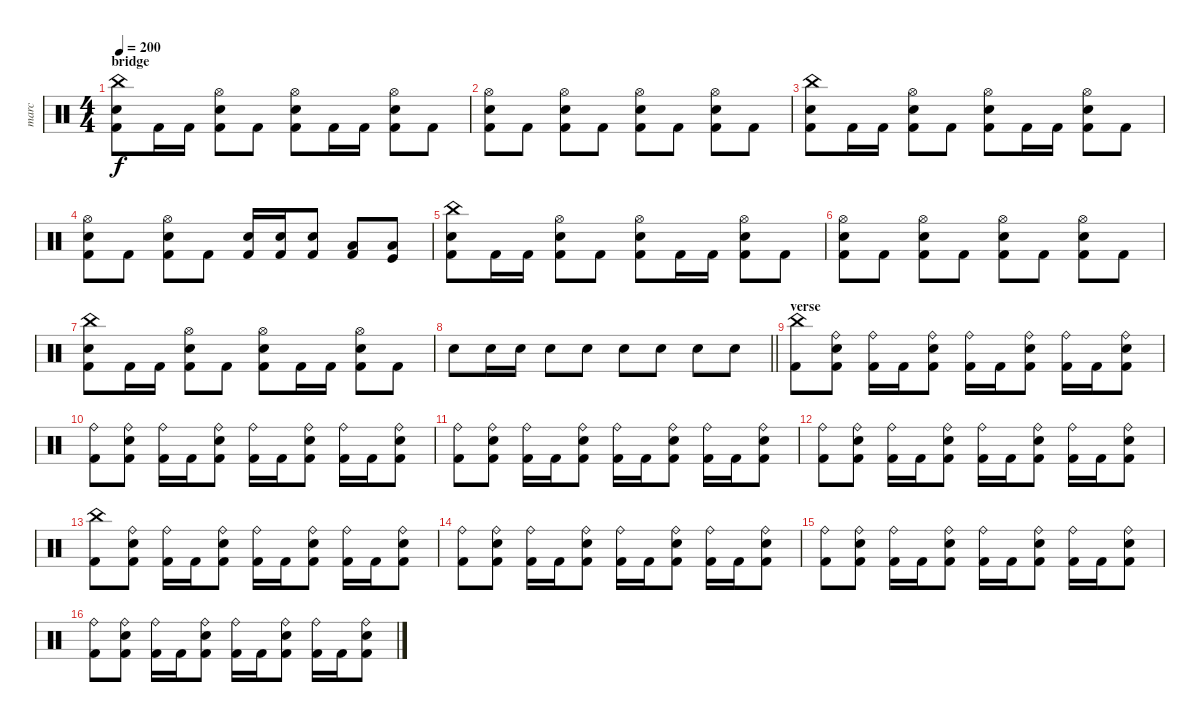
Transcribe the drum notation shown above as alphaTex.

\track ("marc" "marc") {instrument percussion}
\staff {score}
\articulation defaults
\ts (4 4)
\section ("" "bridge")
\tempo 200
\clef neutral
\ks c
("China (hit)" "Snare (hit) 2" "Kick (hit) 2").8{dy f} "Kick (hit) 2".16 "Kick (hit) 2".16 ("Hi-Hat (open)" "Snare (hit) 2" "Kick (hit) 2").8 "Kick (hit) 2".8 ("Hi-Hat (open)" "Snare (hit) 2" "Kick (hit) 2").8 "Kick (hit) 2".16 "Kick (hit) 2".16 ("Hi-Hat (open)" "Snare (hit) 2" "Kick (hit) 2").8 "Kick (hit) 2".8 |
("Hi-Hat (open)" "Snare (hit) 2" "Kick (hit) 2").8 "Kick (hit) 2".8 ("Hi-Hat (open)" "Snare (hit) 2" "Kick (hit) 2").8 "Kick (hit) 2".8 ("Hi-Hat (open)" "Snare (hit) 2" "Kick (hit) 2").8 "Kick (hit) 2".8 ("Hi-Hat (open)" "Snare (hit) 2" "Kick (hit) 2").8 "Kick (hit) 2".8 |
("China (hit)" "Snare (hit) 2" "Kick (hit) 2").8 "Kick (hit) 2".16 "Kick (hit) 2".16 ("Hi-Hat (open)" "Snare (hit) 2" "Kick (hit) 2").8 "Kick (hit) 2".8 ("Hi-Hat (open)" "Snare (hit) 2" "Kick (hit) 2").8 "Kick (hit) 2".16 "Kick (hit) 2".16 ("Hi-Hat (open)" "Snare (hit) 2" "Kick (hit) 2").8 "Kick (hit) 2".8 |
("Hi-Hat (open)" "Snare (hit) 2" "Kick (hit) 2").8 "Kick (hit) 2".8 ("Hi-Hat (open)" "Snare (hit) 2" "Kick (hit) 2").8 "Kick (hit) 2".8 ("Snare (hit) 2" "Kick (hit) 2").16 ("Snare (hit) 2" "Kick (hit) 2").16 ("Snare (hit) 2" "Kick (hit) 2").8 ("Low Tom (hit)" "Kick (hit) 2").8 ("Low Tom (hit)" "Kick (hit)").8 |
("China (hit)" "Snare (hit) 2" "Kick (hit) 2").8 "Kick (hit) 2".16 "Kick (hit) 2".16 ("Hi-Hat (open)" "Snare (hit) 2" "Kick (hit) 2").8 "Kick (hit) 2".8 ("Hi-Hat (open)" "Snare (hit) 2" "Kick (hit) 2").8 "Kick (hit) 2".16 "Kick (hit) 2".16 ("Hi-Hat (open)" "Snare (hit) 2" "Kick (hit) 2").8 "Kick (hit) 2".8 |
("Hi-Hat (open)" "Snare (hit) 2" "Kick (hit) 2").8 "Kick (hit) 2".8 ("Hi-Hat (open)" "Snare (hit) 2" "Kick (hit) 2").8 "Kick (hit) 2".8 ("Hi-Hat (open)" "Snare (hit) 2" "Kick (hit) 2").8 "Kick (hit) 2".8 ("Hi-Hat (open)" "Snare (hit) 2" "Kick (hit) 2").8 "Kick (hit) 2".8 |
("China (hit)" "Snare (hit) 2" "Kick (hit) 2").8 "Kick (hit) 2".16 "Kick (hit) 2".16 ("Hi-Hat (open)" "Snare (hit) 2" "Kick (hit) 2").8 "Kick (hit) 2".8 ("Hi-Hat (open)" "Snare (hit) 2" "Kick (hit) 2").8 "Kick (hit) 2".16 "Kick (hit) 2".16 ("Hi-Hat (open)" "Snare (hit) 2" "Kick (hit) 2").8 "Kick (hit) 2".8 |
\barLineRight lightlight "Snare (hit) 2".8 "Snare (hit) 2".16 "Snare (hit) 2".16 "Snare (hit) 2".8 "Snare (hit) 2".8 "Snare (hit) 2".8 "Snare (hit) 2".8 "Snare (hit) 2".8 "Snare (hit) 2".8
|
\section ("" "verse")
("China (hit)" "Kick (hit) 2").8 ("Ride (bell)" "Snare (hit) 2" "Kick (hit) 2").8 ("Ride (bell)" "Kick (hit) 2").16 "Kick (hit) 2".16 ("Ride (bell)" "Snare (hit) 2" "Kick (hit) 2").8 ("Ride (bell)" "Kick (hit) 2").16 "Kick (hit) 2".16 ("Ride (bell)" "Snare (hit) 2" "Kick (hit) 2").8 ("Ride (bell)" "Kick (hit) 2").16 "Kick (hit) 2".16 ("Ride (bell)" "Snare (hit) 2" "Kick (hit) 2").8 |
("Ride (bell)" "Kick (hit) 2").8 ("Ride (bell)" "Snare (hit) 2" "Kick (hit) 2").8 ("Ride (bell)" "Kick (hit) 2").16 "Kick (hit) 2".16 ("Ride (bell)" "Snare (hit) 2" "Kick (hit) 2").8 ("Ride (bell)" "Kick (hit) 2").16 "Kick (hit) 2".16 ("Ride (bell)" "Snare (hit) 2" "Kick (hit) 2").8 ("Ride (bell)" "Kick (hit) 2").16 "Kick (hit) 2".16 ("Ride (bell)" "Snare (hit) 2" "Kick (hit) 2").8 |
("Ride (bell)" "Kick (hit) 2").8 ("Ride (bell)" "Snare (hit) 2" "Kick (hit) 2").8 ("Ride (bell)" "Kick (hit) 2").16 "Kick (hit) 2".16 ("Ride (bell)" "Snare (hit) 2" "Kick (hit) 2").8 ("Ride (bell)" "Kick (hit) 2").16 "Kick (hit) 2".16 ("Ride (bell)" "Snare (hit) 2" "Kick (hit) 2").8 ("Ride (bell)" "Kick (hit) 2").16 "Kick (hit) 2".16 ("Ride (bell)" "Snare (hit) 2" "Kick (hit) 2").8 |
("Ride (bell)" "Kick (hit) 2").8 ("Ride (bell)" "Snare (hit) 2" "Kick (hit) 2").8 ("Ride (bell)" "Kick (hit) 2").16 "Kick (hit) 2".16 ("Ride (bell)" "Snare (hit) 2" "Kick (hit) 2").8 ("Ride (bell)" "Kick (hit) 2").16 "Kick (hit) 2".16 ("Ride (bell)" "Snare (hit) 2" "Kick (hit) 2").8 ("Ride (bell)" "Kick (hit) 2").16 "Kick (hit) 2".16 ("Ride (bell)" "Snare (hit) 2" "Kick (hit) 2").8 |
("China (hit)" "Kick (hit) 2").8 ("Ride (bell)" "Snare (hit) 2" "Kick (hit) 2").8 ("Ride (bell)" "Kick (hit) 2").16 "Kick (hit) 2".16 ("Ride (bell)" "Snare (hit) 2" "Kick (hit) 2").8 ("Ride (bell)" "Kick (hit) 2").16 "Kick (hit) 2".16 ("Ride (bell)" "Snare (hit) 2" "Kick (hit) 2").8 ("Ride (bell)" "Kick (hit) 2").16 "Kick (hit) 2".16 ("Ride (bell)" "Snare (hit) 2" "Kick (hit) 2").8 |
("Ride (bell)" "Kick (hit) 2").8 ("Ride (bell)" "Snare (hit) 2" "Kick (hit) 2").8 ("Ride (bell)" "Kick (hit) 2").16 "Kick (hit) 2".16 ("Ride (bell)" "Snare (hit) 2" "Kick (hit) 2").8 ("Ride (bell)" "Kick (hit) 2").16 "Kick (hit) 2".16 ("Ride (bell)" "Snare (hit) 2" "Kick (hit) 2").8 ("Ride (bell)" "Kick (hit) 2").16 "Kick (hit) 2".16 ("Ride (bell)" "Snare (hit) 2" "Kick (hit) 2").8 |
("Ride (bell)" "Kick (hit) 2").8 ("Ride (bell)" "Snare (hit) 2" "Kick (hit) 2").8 ("Ride (bell)" "Kick (hit) 2").16 "Kick (hit) 2".16 ("Ride (bell)" "Snare (hit) 2" "Kick (hit) 2").8 ("Ride (bell)" "Kick (hit) 2").16 "Kick (hit) 2".16 ("Ride (bell)" "Snare (hit) 2" "Kick (hit) 2").8 ("Ride (bell)" "Kick (hit) 2").16 "Kick (hit) 2".16 ("Ride (bell)" "Snare (hit) 2" "Kick (hit) 2").8 |
("Ride (bell)" "Kick (hit) 2").8 ("Ride (bell)" "Snare (hit) 2" "Kick (hit) 2").8 ("Ride (bell)" "Kick (hit) 2").16 "Kick (hit) 2".16 ("Ride (bell)" "Snare (hit) 2" "Kick (hit) 2").8 ("Ride (bell)" "Kick (hit) 2").16 "Kick (hit) 2".16 ("Ride (bell)" "Snare (hit) 2" "Kick (hit) 2").8 ("Ride (bell)" "Kick (hit) 2").16 "Kick (hit) 2".16 ("Ride (bell)" "Snare (hit) 2" "Kick (hit) 2").8
